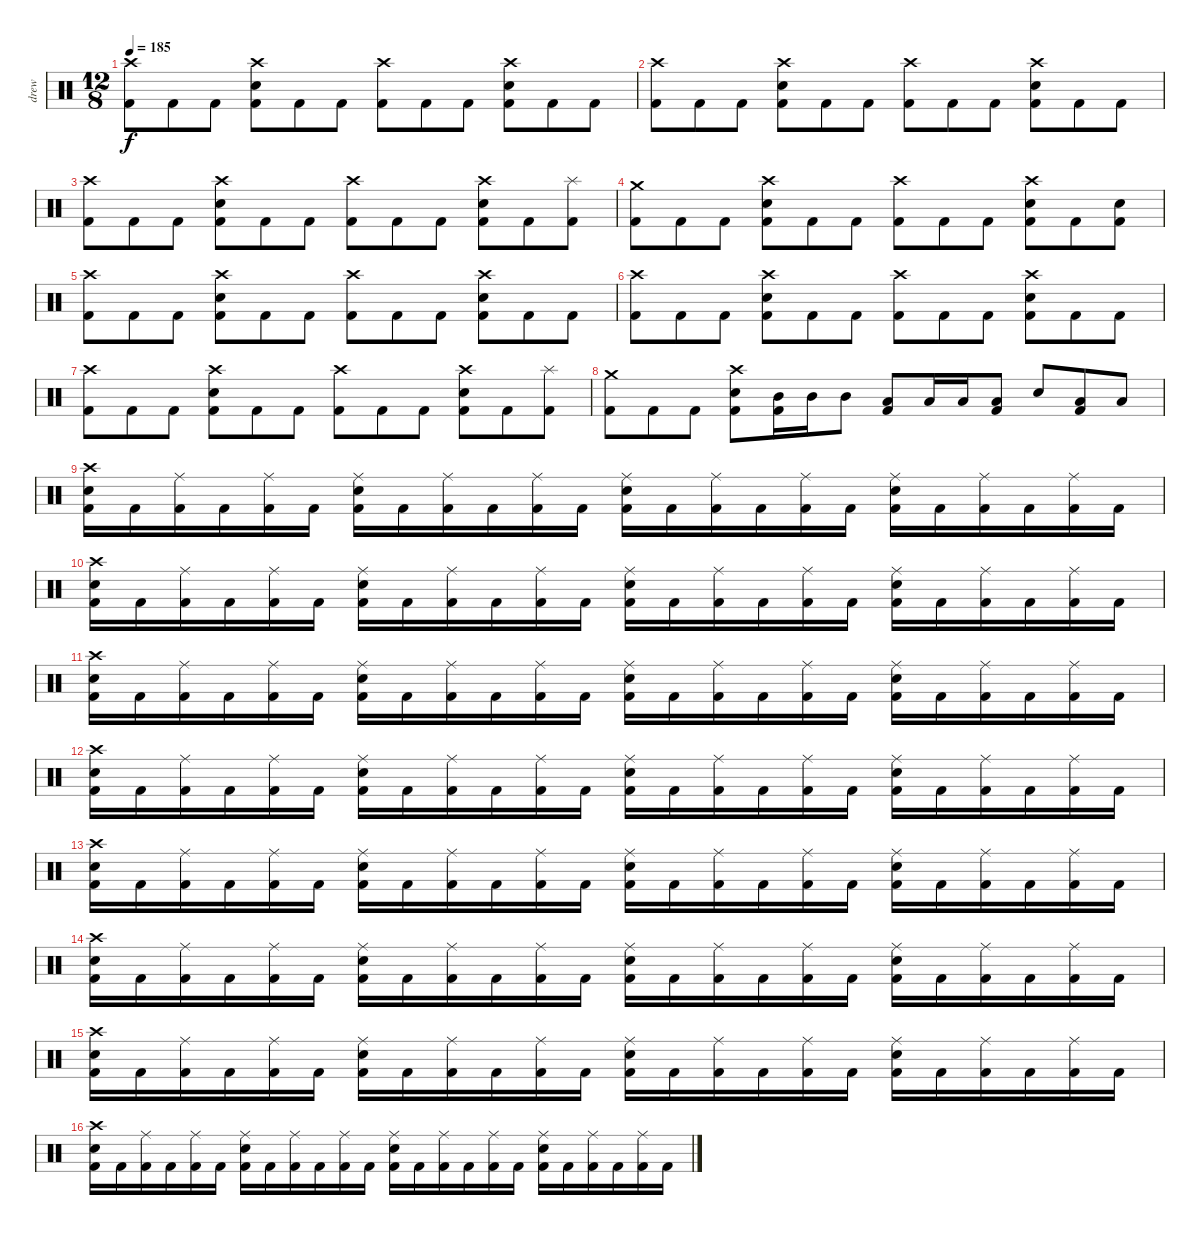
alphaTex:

\track ("drew" "drew") {instrument percussion}
\staff {score}
\articulation defaults
\ts (12 8)
\tempo 185
\clef neutral
\ks c
("Crash high (hit)" "Kick (hit) 2").8{dy f} "Kick (hit) 2".8 "Kick (hit) 2".8 ("Crash high (hit)" "Electric Snare (hit)" "Kick (hit) 2").8 "Kick (hit) 2".8 "Kick (hit) 2".8 ("Crash high (hit)" "Kick (hit) 2").8 "Kick (hit) 2".8 "Kick (hit) 2".8 ("Crash high (hit)" "Electric Snare (hit)" "Kick (hit) 2").8 "Kick (hit) 2".8 "Kick (hit) 2".8 |
("Crash high (hit)" "Kick (hit) 2").8 "Kick (hit) 2".8 "Kick (hit) 2".8 ("Crash high (hit)" "Electric Snare (hit)" "Kick (hit) 2").8 "Kick (hit) 2".8 "Kick (hit) 2".8 ("Crash high (hit)" "Kick (hit) 2").8 "Kick (hit) 2".8 "Kick (hit) 2".8 ("Crash high (hit)" "Electric Snare (hit)" "Kick (hit) 2").8 "Kick (hit) 2".8 "Kick (hit) 2".8 |
("Crash high (hit)" "Kick (hit) 2").8 "Kick (hit) 2".8 "Kick (hit) 2".8 ("Crash high (hit)" "Electric Snare (hit)" "Kick (hit) 2").8 "Kick (hit) 2".8 "Kick (hit) 2".8 ("Crash high (hit)" "Kick (hit) 2").8 "Kick (hit) 2".8 "Kick (hit) 2".8 ("Crash high (hit)" "Electric Snare (hit)" "Kick (hit) 2").8 "Kick (hit) 2".8 ("Splash (hit)" "Kick (hit) 2").8 |
("Crash medium (hit)" "Kick (hit) 2").8 "Kick (hit) 2".8 "Kick (hit) 2".8 ("Crash high (hit)" "Electric Snare (hit)" "Kick (hit) 2").8 "Kick (hit) 2".8 "Kick (hit) 2".8 ("Crash high (hit)" "Kick (hit) 2").8 "Kick (hit) 2".8 "Kick (hit) 2".8 ("Crash high (hit)" "Electric Snare (hit)" "Kick (hit) 2").8 "Kick (hit) 2".8 ("Electric Snare (hit)" "Kick (hit) 2").8 |
("Crash high (hit)" "Kick (hit) 2").8 "Kick (hit) 2".8 "Kick (hit) 2".8 ("Crash high (hit)" "Electric Snare (hit)" "Kick (hit) 2").8 "Kick (hit) 2".8 "Kick (hit) 2".8 ("Crash high (hit)" "Kick (hit) 2").8 "Kick (hit) 2".8 "Kick (hit) 2".8 ("Crash high (hit)" "Electric Snare (hit)" "Kick (hit) 2").8 "Kick (hit) 2".8 "Kick (hit) 2".8 |
("Crash high (hit)" "Kick (hit) 2").8 "Kick (hit) 2".8 "Kick (hit) 2".8 ("Crash high (hit)" "Electric Snare (hit)" "Kick (hit) 2").8 "Kick (hit) 2".8 "Kick (hit) 2".8 ("Crash high (hit)" "Kick (hit) 2").8 "Kick (hit) 2".8 "Kick (hit) 2".8 ("Crash high (hit)" "Electric Snare (hit)" "Kick (hit) 2").8 "Kick (hit) 2".8 "Kick (hit) 2".8 |
("Crash high (hit)" "Kick (hit) 2").8 "Kick (hit) 2".8 "Kick (hit) 2".8 ("Crash high (hit)" "Electric Snare (hit)" "Kick (hit) 2").8 "Kick (hit) 2".8 "Kick (hit) 2".8 ("Crash high (hit)" "Kick (hit) 2").8 "Kick (hit) 2".8 "Kick (hit) 2".8 ("Crash high (hit)" "Electric Snare (hit)" "Kick (hit) 2").8 "Kick (hit) 2".8 ("Splash (hit)" "Kick (hit) 2").8 |
("Crash medium (hit)" "Kick (hit) 2").8 "Kick (hit) 2".8 "Kick (hit) 2".8 ("Crash high (hit)" "Electric Snare (hit)" "Kick (hit) 2").8 ("Mid Tom (hit)" "Kick (hit) 2").16 "Mid Tom (hit)".16 "Mid Tom (hit)".8 ("Low Tom (hit)" "Kick (hit) 2").8 "Low Tom (hit)".16 "Low Tom (hit)".16 ("Low Tom (hit)" "Kick (hit) 2").8 "Electric Snare (hit)".8 ("Low Floor Tom (hit)" "Kick (hit) 2").8 "Low Floor Tom (hit)".8 |
("Crash high (hit)" "Electric Snare (hit)" "Kick (hit) 2").16 "Kick (hit) 2".16 ("Ride (middle)" "Kick (hit) 2").16 "Kick (hit) 2".16 ("Ride (middle)" "Kick (hit) 2").16 "Kick (hit) 2".16 ("Ride (middle)" "Electric Snare (hit)" "Kick (hit) 2").16 "Kick (hit) 2".16 ("Ride (middle)" "Kick (hit) 2").16 "Kick (hit) 2".16 ("Ride (middle)" "Kick (hit) 2").16 "Kick (hit) 2".16 ("Ride (middle)" "Electric Snare (hit)" "Kick (hit) 2").16 "Kick (hit) 2".16 ("Ride (middle)" "Kick (hit) 2").16 "Kick (hit) 2".16 ("Ride (middle)" "Kick (hit) 2").16 "Kick (hit) 2".16 ("Ride (middle)" "Electric Snare (hit)" "Kick (hit) 2").16 "Kick (hit) 2".16 ("Ride (middle)" "Kick (hit) 2").16 "Kick (hit) 2".16 ("Ride (middle)" "Kick (hit) 2").16 "Kick (hit) 2".16 |
("Crash high (hit)" "Electric Snare (hit)" "Kick (hit) 2").16 "Kick (hit) 2".16 ("Ride (middle)" "Kick (hit) 2").16 "Kick (hit) 2".16 ("Ride (middle)" "Kick (hit) 2").16 "Kick (hit) 2".16 ("Ride (middle)" "Electric Snare (hit)" "Kick (hit) 2").16 "Kick (hit) 2".16 ("Ride (middle)" "Kick (hit) 2").16 "Kick (hit) 2".16 ("Ride (middle)" "Kick (hit) 2").16 "Kick (hit) 2".16 ("Ride (middle)" "Electric Snare (hit)" "Kick (hit) 2").16 "Kick (hit) 2".16 ("Ride (middle)" "Kick (hit) 2").16 "Kick (hit) 2".16 ("Ride (middle)" "Kick (hit) 2").16 "Kick (hit) 2".16 ("Ride (middle)" "Electric Snare (hit)" "Kick (hit) 2").16 "Kick (hit) 2".16 ("Ride (middle)" "Kick (hit) 2").16 "Kick (hit) 2".16 ("Ride (middle)" "Kick (hit) 2").16 "Kick (hit) 2".16 |
("Crash high (hit)" "Electric Snare (hit)" "Kick (hit) 2").16 "Kick (hit) 2".16 ("Ride (middle)" "Kick (hit) 2").16 "Kick (hit) 2".16 ("Ride (middle)" "Kick (hit) 2").16 "Kick (hit) 2".16 ("Ride (middle)" "Electric Snare (hit)" "Kick (hit) 2").16 "Kick (hit) 2".16 ("Ride (middle)" "Kick (hit) 2").16 "Kick (hit) 2".16 ("Ride (middle)" "Kick (hit) 2").16 "Kick (hit) 2".16 ("Ride (middle)" "Electric Snare (hit)" "Kick (hit) 2").16 "Kick (hit) 2".16 ("Ride (middle)" "Kick (hit) 2").16 "Kick (hit) 2".16 ("Ride (middle)" "Kick (hit) 2").16 "Kick (hit) 2".16 ("Ride (middle)" "Electric Snare (hit)" "Kick (hit) 2").16 "Kick (hit) 2".16 ("Ride (middle)" "Kick (hit) 2").16 "Kick (hit) 2".16 ("Ride (middle)" "Kick (hit) 2").16 "Kick (hit) 2".16 |
("Crash high (hit)" "Electric Snare (hit)" "Kick (hit) 2").16 "Kick (hit) 2".16 ("Ride (middle)" "Kick (hit) 2").16 "Kick (hit) 2".16 ("Ride (middle)" "Kick (hit) 2").16 "Kick (hit) 2".16 ("Ride (middle)" "Electric Snare (hit)" "Kick (hit) 2").16 "Kick (hit) 2".16 ("Ride (middle)" "Kick (hit) 2").16 "Kick (hit) 2".16 ("Ride (middle)" "Kick (hit) 2").16 "Kick (hit) 2".16 ("Ride (middle)" "Electric Snare (hit)" "Kick (hit) 2").16 "Kick (hit) 2".16 ("Ride (middle)" "Kick (hit) 2").16 "Kick (hit) 2".16 ("Ride (middle)" "Kick (hit) 2").16 "Kick (hit) 2".16 ("Ride (middle)" "Electric Snare (hit)" "Kick (hit) 2").16 "Kick (hit) 2".16 ("Ride (middle)" "Kick (hit) 2").16 "Kick (hit) 2".16 ("Ride (middle)" "Kick (hit) 2").16 "Kick (hit) 2".16 |
("Crash high (hit)" "Electric Snare (hit)" "Kick (hit) 2").16 "Kick (hit) 2".16 ("Ride (middle)" "Kick (hit) 2").16 "Kick (hit) 2".16 ("Ride (middle)" "Kick (hit) 2").16 "Kick (hit) 2".16 ("Ride (middle)" "Electric Snare (hit)" "Kick (hit) 2").16 "Kick (hit) 2".16 ("Ride (middle)" "Kick (hit) 2").16 "Kick (hit) 2".16 ("Ride (middle)" "Kick (hit) 2").16 "Kick (hit) 2".16 ("Ride (middle)" "Electric Snare (hit)" "Kick (hit) 2").16 "Kick (hit) 2".16 ("Ride (middle)" "Kick (hit) 2").16 "Kick (hit) 2".16 ("Ride (middle)" "Kick (hit) 2").16 "Kick (hit) 2".16 ("Ride (middle)" "Electric Snare (hit)" "Kick (hit) 2").16 "Kick (hit) 2".16 ("Ride (middle)" "Kick (hit) 2").16 "Kick (hit) 2".16 ("Ride (middle)" "Kick (hit) 2").16 "Kick (hit) 2".16 |
("Crash high (hit)" "Electric Snare (hit)" "Kick (hit) 2").16 "Kick (hit) 2".16 ("Ride (middle)" "Kick (hit) 2").16 "Kick (hit) 2".16 ("Ride (middle)" "Kick (hit) 2").16 "Kick (hit) 2".16 ("Ride (middle)" "Electric Snare (hit)" "Kick (hit) 2").16 "Kick (hit) 2".16 ("Ride (middle)" "Kick (hit) 2").16 "Kick (hit) 2".16 ("Ride (middle)" "Kick (hit) 2").16 "Kick (hit) 2".16 ("Ride (middle)" "Electric Snare (hit)" "Kick (hit) 2").16 "Kick (hit) 2".16 ("Ride (middle)" "Kick (hit) 2").16 "Kick (hit) 2".16 ("Ride (middle)" "Kick (hit) 2").16 "Kick (hit) 2".16 ("Ride (middle)" "Electric Snare (hit)" "Kick (hit) 2").16 "Kick (hit) 2".16 ("Ride (middle)" "Kick (hit) 2").16 "Kick (hit) 2".16 ("Ride (middle)" "Kick (hit) 2").16 "Kick (hit) 2".16 |
("Crash high (hit)" "Electric Snare (hit)" "Kick (hit) 2").16 "Kick (hit) 2".16 ("Ride (middle)" "Kick (hit) 2").16 "Kick (hit) 2".16 ("Ride (middle)" "Kick (hit) 2").16 "Kick (hit) 2".16 ("Ride (middle)" "Electric Snare (hit)" "Kick (hit) 2").16 "Kick (hit) 2".16 ("Ride (middle)" "Kick (hit) 2").16 "Kick (hit) 2".16 ("Ride (middle)" "Kick (hit) 2").16 "Kick (hit) 2".16 ("Ride (middle)" "Electric Snare (hit)" "Kick (hit) 2").16 "Kick (hit) 2".16 ("Ride (middle)" "Kick (hit) 2").16 "Kick (hit) 2".16 ("Ride (middle)" "Kick (hit) 2").16 "Kick (hit) 2".16 ("Ride (middle)" "Electric Snare (hit)" "Kick (hit) 2").16 "Kick (hit) 2".16 ("Ride (middle)" "Kick (hit) 2").16 "Kick (hit) 2".16 ("Ride (middle)" "Kick (hit) 2").16 "Kick (hit) 2".16 |
("Crash high (hit)" "Electric Snare (hit)" "Kick (hit) 2").16 "Kick (hit) 2".16 ("Ride (middle)" "Kick (hit) 2").16 "Kick (hit) 2".16 ("Ride (middle)" "Kick (hit) 2").16 "Kick (hit) 2".16 ("Ride (middle)" "Electric Snare (hit)" "Kick (hit) 2").16 "Kick (hit) 2".16 ("Ride (middle)" "Kick (hit) 2").16 "Kick (hit) 2".16 ("Ride (middle)" "Kick (hit) 2").16 "Kick (hit) 2".16 ("Ride (middle)" "Electric Snare (hit)" "Kick (hit) 2").16 "Kick (hit) 2".16 ("Ride (middle)" "Kick (hit) 2").16 "Kick (hit) 2".16 ("Ride (middle)" "Kick (hit) 2").16 "Kick (hit) 2".16 ("Ride (middle)" "Electric Snare (hit)" "Kick (hit) 2").16 "Kick (hit) 2".16 ("Ride (middle)" "Kick (hit) 2").16 "Kick (hit) 2".16 ("Ride (middle)" "Kick (hit) 2").16 "Kick (hit) 2".16
